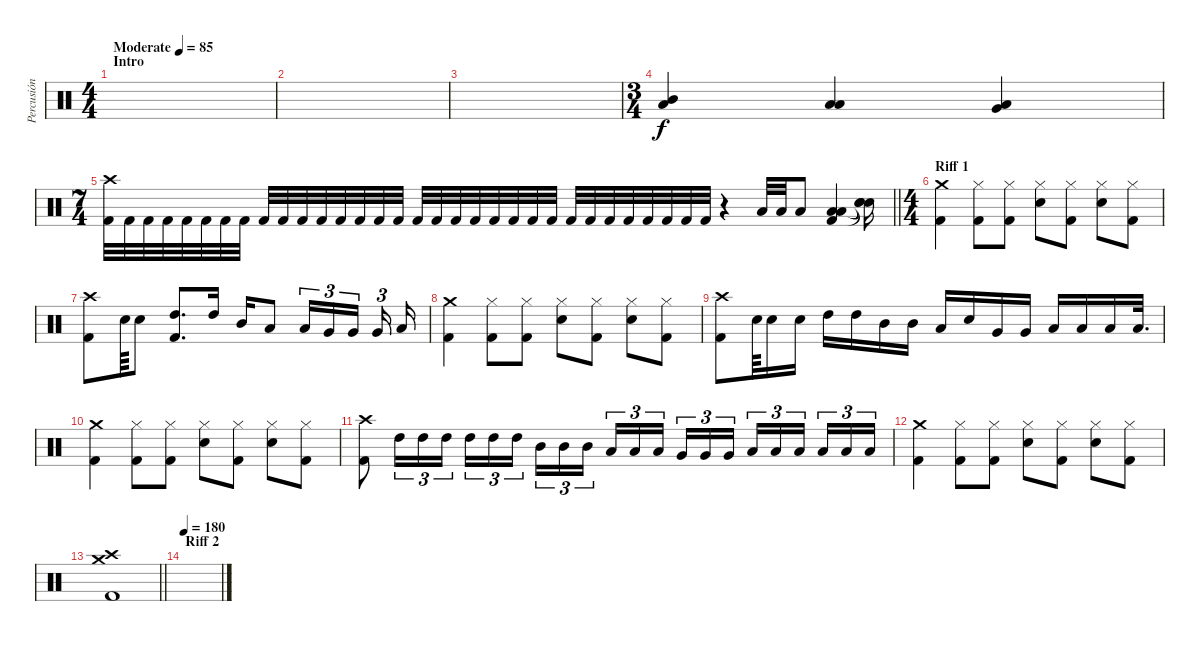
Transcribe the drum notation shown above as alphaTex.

\track ("Percusión" "Percusión") {instrument percussion}
\staff {score}
\articulation defaults
\ts (4 4)
\section ("" "Intro")
\tempo (85 "Moderate")
\clef neutral
\ks c
|
|
|
\ts (3 4)
("Mid Tom (hit)" "Low Tom (hit)").4 ("Low Floor Tom (hit)" "Low Tom (hit)").4 ("Very Low Tom (hit)" "Low Floor Tom (hit)").4 |
\ts (7 4)
\barLineRight lightlight
("Crash high (hit)" "Kick (hit) 2").32 "Kick (hit) 2".32 "Kick (hit) 2".32 "Kick (hit) 2".32 "Kick (hit) 2".32 "Kick (hit) 2".32 "Kick (hit) 2".32 "Kick (hit) 2".32 "Kick (hit) 2".32 "Kick (hit) 2".32 "Kick (hit) 2".32 "Kick (hit) 2".32 "Kick (hit) 2".32 "Kick (hit) 2".32 "Kick (hit) 2".32 "Kick (hit) 2".32 "Kick (hit) 2".32 "Kick (hit) 2".32 "Kick (hit) 2".32 "Kick (hit) 2".32 "Kick (hit) 2".32 "Kick (hit) 2".32 "Kick (hit) 2".32 "Kick (hit) 2".32 "Kick (hit) 2".32 "Kick (hit) 2".32 "Kick (hit) 2".32 "Kick (hit) 2".32 "Kick (hit) 2".32 "Kick (hit) 2".32 "Kick (hit) 2".32 "Kick (hit) 2".32 r.4 "Low Tom (hit)".32 "Low Floor Tom (hit)".32 "Low Floor Tom (hit)".8 ("Low Tom (hit)" "Low Floor Tom (hit)" "Kick (hit) 2").4 ("Snare (hit)"{t} "Snare (hit)"{t} "Snare (hit)"{t}).16 |
\ts (4 4)
\section ("" "Riff 1")
("Crash medium (hit)" "Kick (hit) 2").4 ("Hi-Hat (closed)" "Kick (hit) 2").8 ("Hi-Hat (closed)" "Kick (hit) 2").8 ("Hi-Hat (closed)" "Snare (hit) 2").8 ("Hi-Hat (closed)" "Kick (hit) 2").8 ("Hi-Hat (closed)" "Snare (hit) 2").8 ("Hi-Hat (closed)" "Kick (hit) 2").8 |
("Crash high (hit)" "Kick (hit) 2").8 "Snare (hit) 2".64 "Snare (hit) 2".8 ("High Tom (hit)" "Kick (hit) 2").8{d} "High Tom (hit)".16 "Mid Tom (hit)".16 "Low Tom (hit)".8 "Low Tom (hit)".16{tu (3 2)} "Very Low Tom (hit)".16{tu (3 2)} "Very Low Tom (hit)".16{tu (3 2) beam splitsecondary} "Very Low Tom (hit)".16{tu (3 2)} "Low Floor Tom (hit)".16 |
("Crash medium (hit)" "Kick (hit) 2").4 ("Hi-Hat (closed)" "Kick (hit) 2").8 ("Hi-Hat (closed)" "Kick (hit) 2").8 ("Hi-Hat (closed)" "Snare (hit) 2").8 ("Hi-Hat (closed)" "Kick (hit) 2").8 ("Hi-Hat (closed)" "Snare (hit) 2").8 ("Hi-Hat (closed)" "Kick (hit) 2").8 |
("Crash high (hit)" "Kick (hit) 2").8 "Snare (hit) 2".64 "Snare (hit) 2".16 "Snare (hit) 2".16 "High Tom (hit)".16 "High Tom (hit)".16 "Mid Tom (hit)".16 "Mid Tom (hit)".16 "Low Tom (hit)".16 "Snare (hit) 2".16 "Very Low Tom (hit)".16 "Very Low Tom (hit)".16 "Low Floor Tom (hit)".16 "Low Floor Tom (hit)".16 "Low Floor Tom (hit)".16 "Low Floor Tom (hit)".32{d} |
("Crash medium (hit)" "Kick (hit) 2").4 ("Hi-Hat (closed)" "Kick (hit) 2").8 ("Hi-Hat (closed)" "Kick (hit) 2").8 ("Hi-Hat (closed)" "Snare (hit) 2").8 ("Hi-Hat (closed)" "Kick (hit) 2").8 ("Hi-Hat (closed)" "Snare (hit) 2").8 ("Hi-Hat (closed)" "Kick (hit) 2").8 |
("Crash high (hit)" "Kick (hit) 2").8 "High Tom (hit)".16{tu (3 2)} "High Tom (hit)".16{tu (3 2)} "High Tom (hit)".16{tu (3 2)} "High Tom (hit)".16{tu (3 2)} "High Tom (hit)".16{tu (3 2)} "High Tom (hit)".16{tu (3 2) beam splitsecondary} "Mid Tom (hit)".16{tu (3 2)} "Mid Tom (hit)".16{tu (3 2)} "Mid Tom (hit)".16{tu (3 2)} "Low Tom (hit)".16{tu (3 2)} "Low Tom (hit)".16{tu (3 2)} "Low Tom (hit)".16{tu (3 2) beam splitsecondary} "Very Low Tom (hit)".16{tu (3 2)} "Very Low Tom (hit)".16{tu (3 2)} "Very Low Tom (hit)".16{tu (3 2)} "Low Floor Tom (hit)".16{tu (3 2)} "Low Floor Tom (hit)".16{tu (3 2)} "Low Floor Tom (hit)".16{tu (3 2) beam splitsecondary} "Low Floor Tom (hit)".16{tu (3 2)} "Low Floor Tom (hit)".16{tu (3 2)} "Low Floor Tom (hit)".16{tu (3 2)} |
("Crash medium (hit)" "Kick (hit) 2").4 ("Hi-Hat (closed)" "Kick (hit) 2").8 ("Hi-Hat (closed)" "Kick (hit) 2").8 ("Hi-Hat (closed)" "Snare (hit) 2").8 ("Hi-Hat (closed)" "Kick (hit) 2").8 ("Hi-Hat (closed)" "Snare (hit) 2").8 ("Hi-Hat (closed)" "Kick (hit) 2").8 |
\barLineRight lightlight
("Crash high (hit)" "Crash medium (hit)" "Kick (hit) 2").1 |
\section ("" "Riff 2")
\tempo 180
